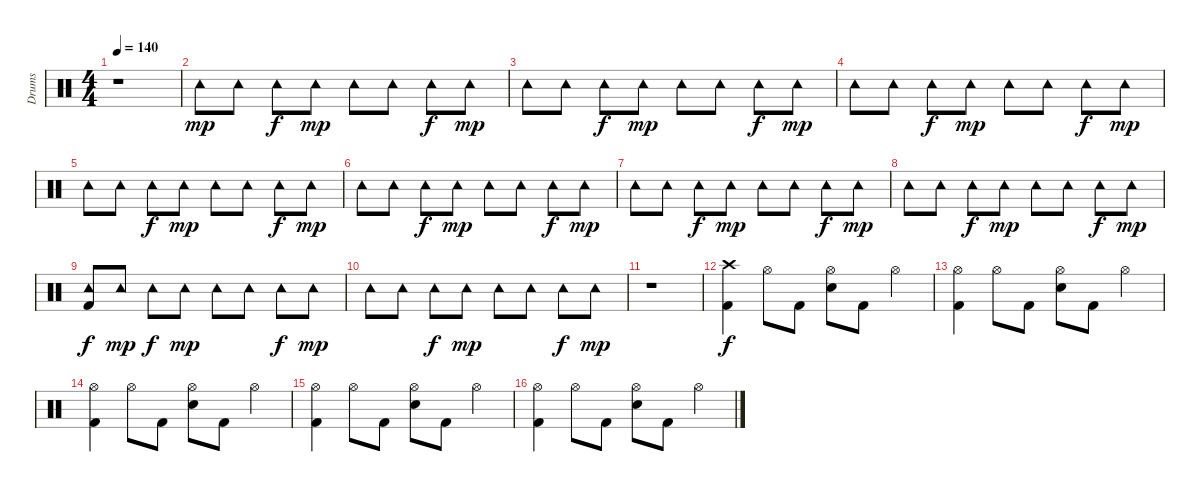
\track ("Drums" "Drums") {instrument percussion}
\staff {score}
\articulation defaults
\ts (4 4)
\tempo 140
\clef neutral
\ks c
r.1{dy mp} |
"Tambourine (hit)".8{volume 0} "Tambourine (hit)".8 "Tambourine (hit)".8{dy f} "Tambourine (hit)".8{dy mp} "Tambourine (hit)".8 "Tambourine (hit)".8 "Tambourine (hit)".8{dy f} "Tambourine (hit)".8{dy mp} |
"Tambourine (hit)".8 "Tambourine (hit)".8 "Tambourine (hit)".8{dy f} "Tambourine (hit)".8{dy mp} "Tambourine (hit)".8 "Tambourine (hit)".8 "Tambourine (hit)".8{dy f} "Tambourine (hit)".8{dy mp} |
"Tambourine (hit)".8 "Tambourine (hit)".8 "Tambourine (hit)".8{dy f} "Tambourine (hit)".8{dy mp} "Tambourine (hit)".8 "Tambourine (hit)".8 "Tambourine (hit)".8{dy f} "Tambourine (hit)".8{dy mp} |
"Tambourine (hit)".8 "Tambourine (hit)".8 "Tambourine (hit)".8{dy f} "Tambourine (hit)".8{dy mp} "Tambourine (hit)".8 "Tambourine (hit)".8 "Tambourine (hit)".8{dy f} "Tambourine (hit)".8{dy mp} |
"Tambourine (hit)".8 "Tambourine (hit)".8 "Tambourine (hit)".8{dy f} "Tambourine (hit)".8{dy mp} "Tambourine (hit)".8 "Tambourine (hit)".8 "Tambourine (hit)".8{dy f} "Tambourine (hit)".8{dy mp} |
"Tambourine (hit)".8 "Tambourine (hit)".8 "Tambourine (hit)".8{dy f} "Tambourine (hit)".8{dy mp} "Tambourine (hit)".8 "Tambourine (hit)".8 "Tambourine (hit)".8{dy f} "Tambourine (hit)".8{dy mp} |
"Tambourine (hit)".8 "Tambourine (hit)".8 "Tambourine (hit)".8{dy f} "Tambourine (hit)".8{dy mp} "Tambourine (hit)".8 "Tambourine (hit)".8 "Tambourine (hit)".8{dy f} "Tambourine (hit)".8{dy mp} |
("Kick (hit) 2" "Tambourine (hit)").8{dy f} "Tambourine (hit)".8{dy mp} "Tambourine (hit)".8{dy f} "Tambourine (hit)".8{dy mp} "Tambourine (hit)".8 "Tambourine (hit)".8 "Tambourine (hit)".8{dy f} "Tambourine (hit)".8{dy mp} |
"Tambourine (hit)".8 "Tambourine (hit)".8 "Tambourine (hit)".8{dy f} "Tambourine (hit)".8{dy mp} "Tambourine (hit)".8 "Tambourine (hit)".8 "Tambourine (hit)".8{dy f} "Tambourine (hit)".8{dy mp} |
r.1 |
("Kick (hit) 2" "Crash high (hit)").4{dy f volume 6} "Hi-Hat (open)".8 "Kick (hit) 2".8 ("Hi-Hat (open)" "Snare (hit) 2").8 "Kick (hit) 2".8 "Hi-Hat (open)".4 |
("Kick (hit) 2" "Hi-Hat (open)").4 "Hi-Hat (open)".8 "Kick (hit) 2".8 ("Hi-Hat (open)" "Snare (hit) 2").8 "Kick (hit) 2".8 "Hi-Hat (open)".4 |
("Kick (hit) 2" "Hi-Hat (open)").4 "Hi-Hat (open)".8 "Kick (hit) 2".8 ("Hi-Hat (open)" "Snare (hit) 2").8 "Kick (hit) 2".8 "Hi-Hat (open)".4 |
("Kick (hit) 2" "Hi-Hat (open)").4 "Hi-Hat (open)".8 "Kick (hit) 2".8 ("Hi-Hat (open)" "Snare (hit) 2").8 "Kick (hit) 2".8 "Hi-Hat (open)".4 |
("Kick (hit) 2" "Hi-Hat (open)").4 "Hi-Hat (open)".8 "Kick (hit) 2".8 ("Hi-Hat (open)" "Snare (hit) 2").8 "Kick (hit) 2".8 "Hi-Hat (open)".4
